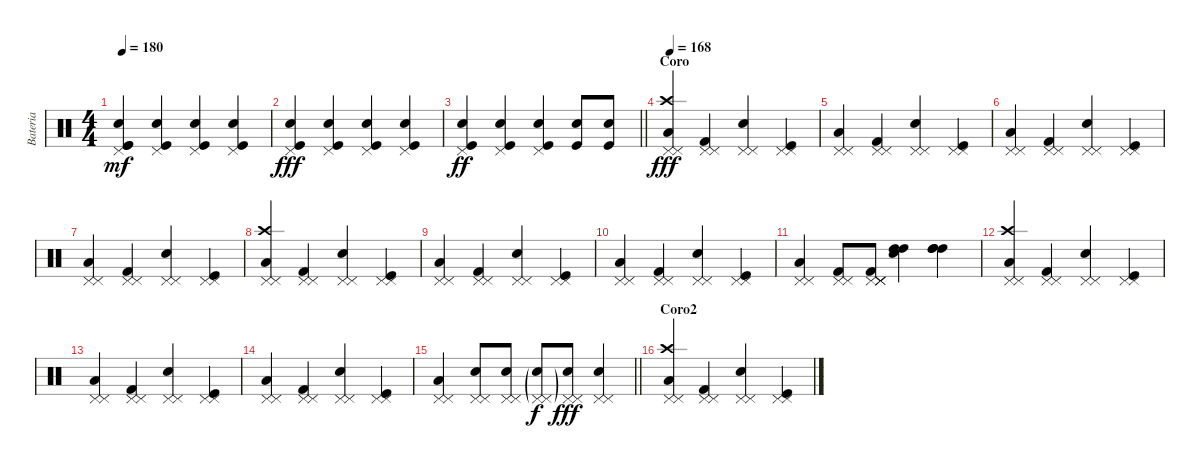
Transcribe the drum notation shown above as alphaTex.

\track ("Bateria" "Bateria") {instrument percussion}
\staff {score}
\articulation defaults
\ts (4 4)
\tempo 180
\clef neutral
\ks c
("Kick (hit)" "Pedal Hi-Hat (hit)" "Kick (hit)" "Electric Snare (hit)").4{dy mf} ("Pedal Hi-Hat (hit)" "Kick (hit)" "Electric Snare (hit)").4 ("Pedal Hi-Hat (hit)" "Kick (hit)" "Electric Snare (hit)").4 ("Pedal Hi-Hat (hit)" "Kick (hit)" "Electric Snare (hit)").4 |
("Pedal Hi-Hat (hit)" "Kick (hit)" "Electric Snare (hit)").4{dy fff} ("Pedal Hi-Hat (hit)" "Kick (hit)" "Electric Snare (hit)").4 ("Pedal Hi-Hat (hit)" "Kick (hit)" "Electric Snare (hit)").4 ("Pedal Hi-Hat (hit)" "Kick (hit)" "Electric Snare (hit)").4 |
\barLineRight lightlight
("Pedal Hi-Hat (hit)" "Kick (hit)" "Electric Snare (hit)").4{dy ff} ("Pedal Hi-Hat (hit)" "Kick (hit)" "Electric Snare (hit)").4 ("Pedal Hi-Hat (hit)" "Kick (hit)" "Electric Snare (hit)").4 ("Kick (hit)" "Electric Snare (hit)").8 ("Kick (hit)" "Electric Snare (hit)").8 |
\section ("" "Coro")
\tempo 168
("Crash high (hit)" "Pedal Hi-Hat (hit)" "Pedal Hi-Hat (hit)" "Low Floor Tom (hit)").4{dy fff} ("Pedal Hi-Hat (hit)" "Pedal Hi-Hat (hit)" "Kick (hit) 2").4 ("Pedal Hi-Hat (hit)" "Pedal Hi-Hat (hit)" "Electric Snare (hit)").4 ("Pedal Hi-Hat (hit)" "Pedal Hi-Hat (hit)" "Kick (hit)").4 |
("Pedal Hi-Hat (hit)" "Pedal Hi-Hat (hit)" "Low Floor Tom (hit)").4 ("Pedal Hi-Hat (hit)" "Pedal Hi-Hat (hit)" "Kick (hit) 2").4 ("Pedal Hi-Hat (hit)" "Pedal Hi-Hat (hit)" "Electric Snare (hit)").4 ("Pedal Hi-Hat (hit)" "Pedal Hi-Hat (hit)" "Kick (hit)").4 |
("Pedal Hi-Hat (hit)" "Pedal Hi-Hat (hit)" "Low Floor Tom (hit)").4 ("Pedal Hi-Hat (hit)" "Pedal Hi-Hat (hit)" "Kick (hit) 2").4 ("Pedal Hi-Hat (hit)" "Pedal Hi-Hat (hit)" "Electric Snare (hit)").4 ("Pedal Hi-Hat (hit)" "Pedal Hi-Hat (hit)" "Kick (hit)").4 |
("Pedal Hi-Hat (hit)" "Pedal Hi-Hat (hit)" "Low Floor Tom (hit)").4 ("Pedal Hi-Hat (hit)" "Pedal Hi-Hat (hit)" "Kick (hit) 2").4 ("Pedal Hi-Hat (hit)" "Pedal Hi-Hat (hit)" "Electric Snare (hit)").4 ("Pedal Hi-Hat (hit)" "Pedal Hi-Hat (hit)" "Kick (hit)").4 |
("Crash high (hit)" "Pedal Hi-Hat (hit)" "Pedal Hi-Hat (hit)" "Low Floor Tom (hit)").4 ("Pedal Hi-Hat (hit)" "Pedal Hi-Hat (hit)" "Kick (hit) 2").4 ("Pedal Hi-Hat (hit)" "Pedal Hi-Hat (hit)" "Electric Snare (hit)").4 ("Pedal Hi-Hat (hit)" "Pedal Hi-Hat (hit)" "Kick (hit)").4 |
("Pedal Hi-Hat (hit)" "Pedal Hi-Hat (hit)" "Low Floor Tom (hit)").4 ("Pedal Hi-Hat (hit)" "Pedal Hi-Hat (hit)" "Kick (hit) 2").4 ("Pedal Hi-Hat (hit)" "Pedal Hi-Hat (hit)" "Electric Snare (hit)").4 ("Pedal Hi-Hat (hit)" "Pedal Hi-Hat (hit)" "Kick (hit)").4 |
("Pedal Hi-Hat (hit)" "Pedal Hi-Hat (hit)" "Low Floor Tom (hit)").4 ("Pedal Hi-Hat (hit)" "Pedal Hi-Hat (hit)" "Kick (hit) 2").4 ("Pedal Hi-Hat (hit)" "Pedal Hi-Hat (hit)" "Electric Snare (hit)").4 ("Pedal Hi-Hat (hit)" "Pedal Hi-Hat (hit)" "Kick (hit)").4 |
("Pedal Hi-Hat (hit)" "Pedal Hi-Hat (hit)" "Low Floor Tom (hit)").4 ("Pedal Hi-Hat (hit)" "Pedal Hi-Hat (hit)" "Kick (hit) 2").8 ("Pedal Hi-Hat (hit)" "Pedal Hi-Hat (hit)" "Pedal Hi-Hat (hit)" "Pedal Hi-Hat (hit)" "Kick (hit) 2").8 ("High Tom (hit)" "High Tom (hit)" "Electric Snare (hit)").4 ("High Tom (hit)" "High Tom (hit)" "High Tom (hit)").4 |
("Crash high (hit)" "Pedal Hi-Hat (hit)" "Pedal Hi-Hat (hit)" "Low Floor Tom (hit)").4 ("Pedal Hi-Hat (hit)" "Pedal Hi-Hat (hit)" "Kick (hit) 2").4 ("Pedal Hi-Hat (hit)" "Pedal Hi-Hat (hit)" "Electric Snare (hit)").4 ("Pedal Hi-Hat (hit)" "Pedal Hi-Hat (hit)" "Kick (hit)").4 |
("Pedal Hi-Hat (hit)" "Pedal Hi-Hat (hit)" "Low Floor Tom (hit)").4 ("Pedal Hi-Hat (hit)" "Pedal Hi-Hat (hit)" "Kick (hit) 2").4 ("Pedal Hi-Hat (hit)" "Pedal Hi-Hat (hit)" "Electric Snare (hit)").4 ("Pedal Hi-Hat (hit)" "Pedal Hi-Hat (hit)" "Kick (hit)").4 |
("Pedal Hi-Hat (hit)" "Pedal Hi-Hat (hit)" "Low Floor Tom (hit)").4 ("Pedal Hi-Hat (hit)" "Pedal Hi-Hat (hit)" "Kick (hit) 2").4 ("Pedal Hi-Hat (hit)" "Pedal Hi-Hat (hit)" "Electric Snare (hit)").4 ("Pedal Hi-Hat (hit)" "Pedal Hi-Hat (hit)" "Kick (hit)").4 |
\barLineRight lightlight
("Pedal Hi-Hat (hit)" "Pedal Hi-Hat (hit)" "Low Floor Tom (hit)").4 ("Pedal Hi-Hat (hit)" "Pedal Hi-Hat (hit)" "Electric Snare (hit)").8 ("Pedal Hi-Hat (hit)" "Pedal Hi-Hat (hit)" "Electric Snare (hit)").8 ("Pedal Hi-Hat (hit)"{g} "Pedal Hi-Hat (hit)"{g} "Electric Snare (hit)"{g}).8{dy f} ("Pedal Hi-Hat (hit)" "Pedal Hi-Hat (hit)" "Electric Snare (hit)").8{dy fff} ("Pedal Hi-Hat (hit)" "Pedal Hi-Hat (hit)" "Electric Snare (hit)").4 |
\section ("" "Coro2")
("Crash high (hit)" "Pedal Hi-Hat (hit)" "Pedal Hi-Hat (hit)" "Low Floor Tom (hit)").4 ("Pedal Hi-Hat (hit)" "Pedal Hi-Hat (hit)" "Kick (hit) 2").4 ("Pedal Hi-Hat (hit)" "Pedal Hi-Hat (hit)" "Electric Snare (hit)").4 ("Pedal Hi-Hat (hit)" "Pedal Hi-Hat (hit)" "Kick (hit)").4
